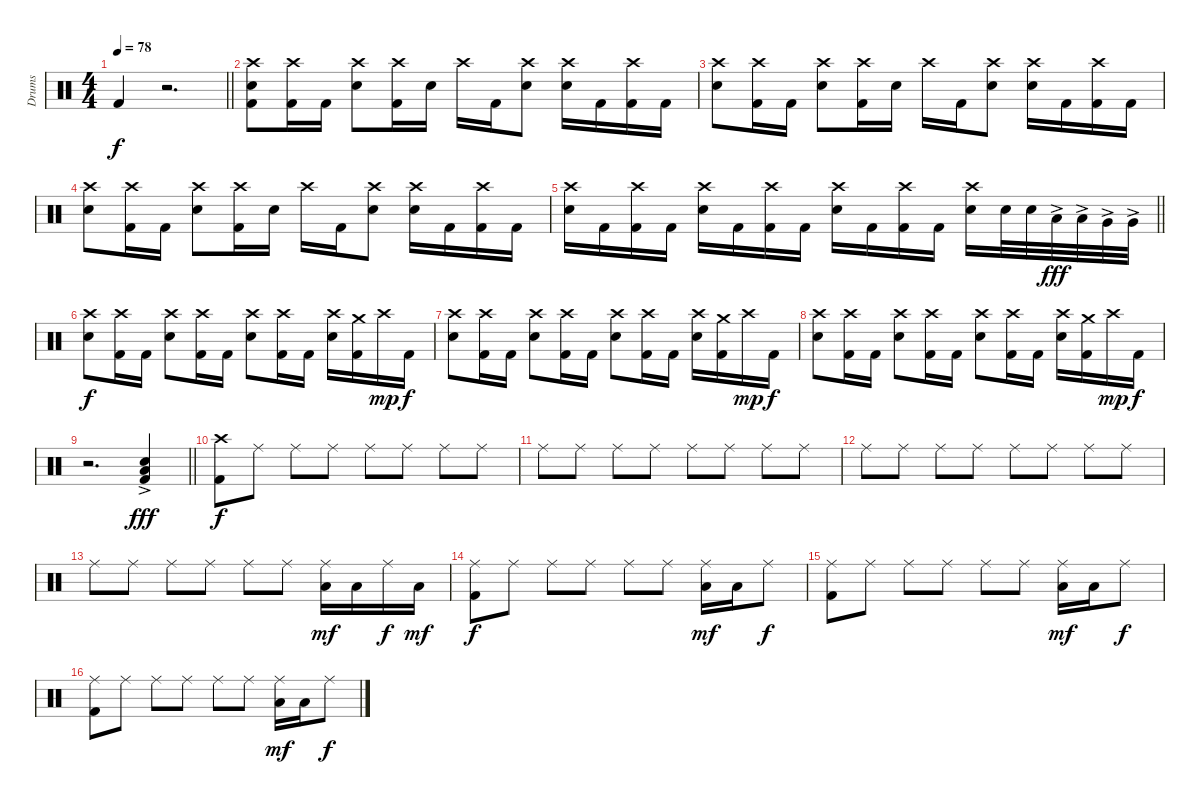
\track ("Drums" "Drums") {instrument percussion}
\staff {score}
\articulation defaults
\ts (4 4)
\tempo 78
\clef neutral
\barLineRight lightlight
\ks c "Kick (hit) 2".4{dy f}
r.2{d} |
("Crash high (hit)" "Snare (hit) 2" "Kick (hit) 2").8 ("Crash high (hit)" "Kick (hit) 2").16 "Kick (hit) 2".16 ("Crash high (hit)" "Snare (hit) 2").8 ("Crash high (hit)" "Kick (hit) 2").16 "Snare (hit) 2".16 "Crash high (hit)".16 "Kick (hit) 2".16 ("Crash high (hit)" "Snare (hit) 2").8 ("Crash high (hit)" "Snare (hit) 2").16 "Kick (hit) 2".16 ("Crash high (hit)" "Kick (hit) 2").16 "Kick (hit) 2".16 |
("Crash high (hit)" "Snare (hit) 2").8 ("Crash high (hit)" "Kick (hit) 2").16 "Kick (hit) 2".16 ("Crash high (hit)" "Snare (hit) 2").8 ("Crash high (hit)" "Kick (hit) 2").16 "Snare (hit) 2".16 "Crash high (hit)".16 "Kick (hit) 2".16 ("Crash high (hit)" "Snare (hit) 2").8 ("Crash high (hit)" "Snare (hit) 2").16 "Kick (hit) 2".16 ("Crash high (hit)" "Kick (hit) 2").16 "Kick (hit) 2".16 |
("Crash high (hit)" "Snare (hit) 2").8 ("Crash high (hit)" "Kick (hit) 2").16 "Kick (hit) 2".16 ("Crash high (hit)" "Snare (hit) 2").8 ("Crash high (hit)" "Kick (hit) 2").16 "Snare (hit) 2".16 "Crash high (hit)".16 "Kick (hit) 2".16 ("Crash high (hit)" "Snare (hit) 2").8 ("Crash high (hit)" "Snare (hit) 2").16 "Kick (hit) 2".16 ("Crash high (hit)" "Kick (hit) 2").16 "Kick (hit) 2".16 |
\barLineRight lightlight
("Crash high (hit)" "Snare (hit) 2").16 "Kick (hit) 2".16 ("Crash high (hit)" "Kick (hit) 2").16 "Kick (hit) 2".16 ("Crash high (hit)" "Snare (hit) 2").16 "Kick (hit) 2".16 ("Crash high (hit)" "Kick (hit) 2").16 "Kick (hit) 2".16 ("Crash high (hit)" "Snare (hit) 2").16 "Kick (hit) 2".16 ("Crash high (hit)" "Kick (hit) 2").16 "Kick (hit) 2".16 ("Crash high (hit)" "Snare (hit) 2").16 "Snare (hit) 2".32 "Snare (hit) 2".32 "Low Tom (hit)"{ac}.32{dy fff} "Low Tom (hit)"{ac}.32 "Very Low Tom (hit)"{ac}.32 "Very Low Tom (hit)"{ac}.32 |
("Crash high (hit)" "Snare (hit) 2").8{dy f} ("Crash high (hit)" "Kick (hit) 2").16 "Kick (hit) 2".16 ("Crash high (hit)" "Snare (hit) 2").8 ("Crash high (hit)" "Kick (hit) 2").16 "Kick (hit) 2".16 ("Crash high (hit)" "Snare (hit) 2").8 ("Crash high (hit)" "Kick (hit) 2").16 "Kick (hit) 2".16 ("Crash high (hit)" "Snare (hit) 2").16 ("Crash medium (hit)" "Kick (hit) 2").16 "Crash high (hit)".16{dy mp} "Kick (hit) 2".16{dy f} |
("Crash high (hit)" "Snare (hit) 2").8 ("Crash high (hit)" "Kick (hit) 2").16 "Kick (hit) 2".16 ("Crash high (hit)" "Snare (hit) 2").8 ("Crash high (hit)" "Kick (hit) 2").16 "Kick (hit) 2".16 ("Crash high (hit)" "Snare (hit) 2").8 ("Crash high (hit)" "Kick (hit) 2").16 "Kick (hit) 2".16 ("Crash high (hit)" "Snare (hit) 2").16 ("Crash medium (hit)" "Kick (hit) 2").16 "Crash high (hit)".16{dy mp} "Kick (hit) 2".16{dy f} |
("Crash high (hit)" "Snare (hit) 2").8 ("Crash high (hit)" "Kick (hit) 2").16 "Kick (hit) 2".16 ("Crash high (hit)" "Snare (hit) 2").8 ("Crash high (hit)" "Kick (hit) 2").16 "Kick (hit) 2".16 ("Crash high (hit)" "Snare (hit) 2").8 ("Crash high (hit)" "Kick (hit) 2").16 "Kick (hit) 2".16 ("Crash high (hit)" "Snare (hit) 2").16 ("Crash medium (hit)" "Kick (hit) 2").16 "Crash high (hit)".16{dy mp} "Kick (hit) 2".16{dy f} |
\barLineRight lightlight
r.2{d} ("Snare (hit) 2"{ac} "Low Floor Tom (hit)"{ac} "Kick (hit) 2").4{dy fff} |
("Crash high (hit)" "Kick (hit) 2").8{dy f} "Ride (middle)".8 "Ride (middle)".8 "Ride (middle)".8 "Ride (middle)".8 "Ride (middle)".8 "Ride (middle)".8 "Ride (middle)".8 |
"Ride (middle)".8 "Ride (middle)".8 "Ride (middle)".8 "Ride (middle)".8 "Ride (middle)".8 "Ride (middle)".8 "Ride (middle)".8 "Ride (middle)".8 |
"Ride (middle)".8 "Ride (middle)".8 "Ride (middle)".8 "Ride (middle)".8 "Ride (middle)".8 "Ride (middle)".8 "Ride (middle)".8 "Ride (middle)".8 |
"Ride (middle)".8 "Ride (middle)".8 "Ride (middle)".8 "Ride (middle)".8 "Ride (middle)".8 "Ride (middle)".8 ("Ride (middle)" "Low Tom (hit)").16{dy mf} "Low Tom (hit)".16 "Ride (middle)".16{dy f} "Low Tom (hit)".16{dy mf} |
("Ride (middle)" "Kick (hit) 2").8{dy f} "Ride (middle)".8 "Ride (middle)".8 "Ride (middle)".8 "Ride (middle)".8 "Ride (middle)".8 ("Ride (middle)" "Low Tom (hit)").16{dy mf} "Low Tom (hit)".16 "Ride (middle)".8{dy f} |
("Ride (middle)" "Kick (hit) 2").8 "Ride (middle)".8 "Ride (middle)".8 "Ride (middle)".8 "Ride (middle)".8 "Ride (middle)".8 ("Ride (middle)" "Low Tom (hit)").16{dy mf} "Low Tom (hit)".16 "Ride (middle)".8{dy f} |
("Ride (middle)" "Kick (hit) 2").8 "Ride (middle)".8 "Ride (middle)".8 "Ride (middle)".8 "Ride (middle)".8 "Ride (middle)".8 ("Ride (middle)" "Low Tom (hit)").16{dy mf} "Low Tom (hit)".16 "Ride (middle)".8{dy f}
